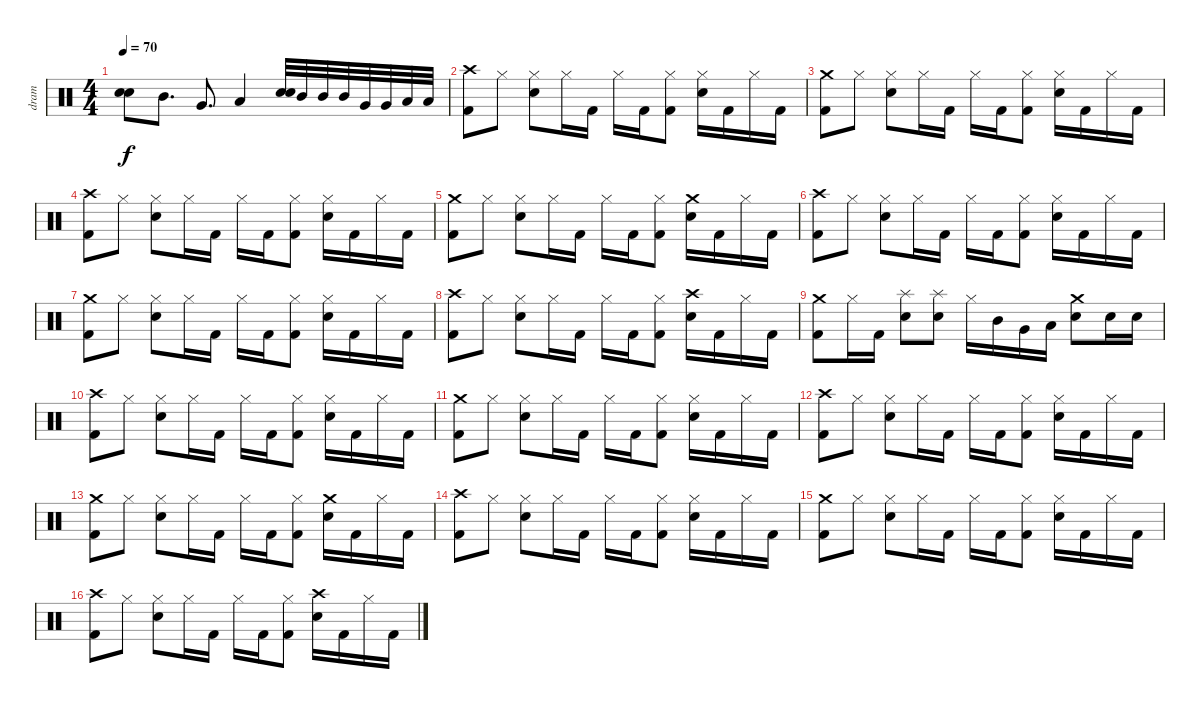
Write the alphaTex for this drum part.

\track ("dram" "dram") {instrument percussion}
\staff {score}
\articulation defaults
\ts (4 4)
\tempo 70
\clef neutral
\ks c
("Snare (hit) 2" "Electric Snare (hit)").8{dy f} "Mid Tom (hit)".8{d} "Very Low Tom (hit)".8{d} "Low Floor Tom (hit)".4 ("Snare (hit) 2" "Electric Snare (hit)").32 "Mid Tom (hit)".32 "Mid Tom (hit)".32 "Mid Tom (hit)".32 "Very Low Tom (hit)".32 "Very Low Tom (hit)".32 "Low Floor Tom (hit)".32 "Low Floor Tom (hit)".32 |
("Crash high (hit)" "Kick (hit) 2").8 "Hi-Hat (closed)".8 ("Electric Snare (hit)" "Hi-Hat (closed)").8 "Hi-Hat (closed)".16 "Kick (hit) 2".16 "Hi-Hat (closed)".16 "Kick (hit) 2".16 ("Kick (hit) 2" "Hi-Hat (closed)").8 ("Electric Snare (hit)" "Hi-Hat (closed)").16 "Kick (hit) 2".16 "Hi-Hat (closed)".16 "Kick (hit) 2".16 |
("Crash medium (hit)" "Kick (hit) 2").8 "Hi-Hat (closed)".8 ("Electric Snare (hit)" "Hi-Hat (closed)").8 "Hi-Hat (closed)".16 "Kick (hit) 2".16 "Hi-Hat (closed)".16 "Kick (hit) 2".16 ("Kick (hit) 2" "Hi-Hat (closed)").8 ("Electric Snare (hit)" "Hi-Hat (closed)").16 "Kick (hit) 2".16 "Hi-Hat (closed)".16 "Kick (hit) 2".16 |
("Crash high (hit)" "Kick (hit) 2").8 "Hi-Hat (closed)".8 ("Electric Snare (hit)" "Hi-Hat (closed)").8 "Hi-Hat (closed)".16 "Kick (hit) 2".16 "Hi-Hat (closed)".16 "Kick (hit) 2".16 ("Kick (hit) 2" "Hi-Hat (closed)").8 ("Electric Snare (hit)" "Hi-Hat (closed)").16 "Kick (hit) 2".16 "Hi-Hat (closed)".16 "Kick (hit) 2".16 |
("Crash medium (hit)" "Kick (hit) 2").8 "Hi-Hat (closed)".8 ("Electric Snare (hit)" "Hi-Hat (closed)").8 "Hi-Hat (closed)".16 "Kick (hit) 2".16 "Hi-Hat (closed)".16 "Kick (hit) 2".16 ("Kick (hit) 2" "Hi-Hat (closed)").8 ("Crash medium (hit)" "Electric Snare (hit)").16 "Kick (hit) 2".16 "Hi-Hat (closed)".16 "Kick (hit) 2".16 |
("Crash high (hit)" "Kick (hit) 2").8 "Hi-Hat (closed)".8 ("Electric Snare (hit)" "Hi-Hat (closed)").8 "Hi-Hat (closed)".16 "Kick (hit) 2".16 "Hi-Hat (closed)".16 "Kick (hit) 2".16 ("Kick (hit) 2" "Hi-Hat (closed)").8 ("Electric Snare (hit)" "Hi-Hat (closed)").16 "Kick (hit) 2".16 "Hi-Hat (closed)".16 "Kick (hit) 2".16 |
("Crash medium (hit)" "Kick (hit) 2").8 "Hi-Hat (closed)".8 ("Electric Snare (hit)" "Hi-Hat (closed)").8 "Hi-Hat (closed)".16 "Kick (hit) 2".16 "Hi-Hat (closed)".16 "Kick (hit) 2".16 ("Kick (hit) 2" "Hi-Hat (closed)").8 ("Electric Snare (hit)" "Hi-Hat (closed)").16 "Kick (hit) 2".16 "Hi-Hat (closed)".16 "Kick (hit) 2".16 |
("Crash high (hit)" "Kick (hit) 2").8 "Hi-Hat (closed)".8 ("Electric Snare (hit)" "Hi-Hat (closed)").8 "Hi-Hat (closed)".16 "Kick (hit) 2".16 "Hi-Hat (closed)".16 "Kick (hit) 2".16 ("Kick (hit) 2" "Hi-Hat (closed)").8 ("Crash high (hit)" "Electric Snare (hit)").16 "Kick (hit) 2".16 "Hi-Hat (closed)".16 "Kick (hit) 2".16 |
("Crash medium (hit)" "Kick (hit) 2").8 "Hi-Hat (closed)".16 "Kick (hit) 2".16 ("Splash (hit)" "Electric Snare (hit)").8 ("Splash (hit)" "Electric Snare (hit)").8 "Hi-Hat (closed)".16 "Mid Tom (hit)".16 "Very Low Tom (hit)".16 "Low Floor Tom (hit)".16 ("Crash medium (hit)" "Electric Snare (hit)").8 "Electric Snare (hit)".16 "Electric Snare (hit)".16 |
("Crash high (hit)" "Kick (hit) 2").8 "Hi-Hat (closed)".8 ("Electric Snare (hit)" "Hi-Hat (closed)").8 "Hi-Hat (closed)".16 "Kick (hit) 2".16 "Hi-Hat (closed)".16 "Kick (hit) 2".16 ("Kick (hit) 2" "Hi-Hat (closed)").8 ("Electric Snare (hit)" "Hi-Hat (closed)").16 "Kick (hit) 2".16 "Hi-Hat (closed)".16 "Kick (hit) 2".16 |
("Crash medium (hit)" "Kick (hit) 2").8 "Hi-Hat (closed)".8 ("Electric Snare (hit)" "Hi-Hat (closed)").8 "Hi-Hat (closed)".16 "Kick (hit) 2".16 "Hi-Hat (closed)".16 "Kick (hit) 2".16 ("Kick (hit) 2" "Hi-Hat (closed)").8 ("Electric Snare (hit)" "Hi-Hat (closed)").16 "Kick (hit) 2".16 "Hi-Hat (closed)".16 "Kick (hit) 2".16 |
("Crash high (hit)" "Kick (hit) 2").8 "Hi-Hat (closed)".8 ("Electric Snare (hit)" "Hi-Hat (closed)").8 "Hi-Hat (closed)".16 "Kick (hit) 2".16 "Hi-Hat (closed)".16 "Kick (hit) 2".16 ("Kick (hit) 2" "Hi-Hat (closed)").8 ("Electric Snare (hit)" "Hi-Hat (closed)").16 "Kick (hit) 2".16 "Hi-Hat (closed)".16 "Kick (hit) 2".16 |
("Crash medium (hit)" "Kick (hit) 2").8 "Hi-Hat (closed)".8 ("Electric Snare (hit)" "Hi-Hat (closed)").8 "Hi-Hat (closed)".16 "Kick (hit) 2".16 "Hi-Hat (closed)".16 "Kick (hit) 2".16 ("Kick (hit) 2" "Hi-Hat (closed)").8 ("Crash medium (hit)" "Electric Snare (hit)").16 "Kick (hit) 2".16 "Hi-Hat (closed)".16 "Kick (hit) 2".16 |
("Crash high (hit)" "Kick (hit) 2").8 "Hi-Hat (closed)".8 ("Electric Snare (hit)" "Hi-Hat (closed)").8 "Hi-Hat (closed)".16 "Kick (hit) 2".16 "Hi-Hat (closed)".16 "Kick (hit) 2".16 ("Kick (hit) 2" "Hi-Hat (closed)").8 ("Electric Snare (hit)" "Hi-Hat (closed)").16 "Kick (hit) 2".16 "Hi-Hat (closed)".16 "Kick (hit) 2".16 |
("Crash medium (hit)" "Kick (hit) 2").8 "Hi-Hat (closed)".8 ("Electric Snare (hit)" "Hi-Hat (closed)").8 "Hi-Hat (closed)".16 "Kick (hit) 2".16 "Hi-Hat (closed)".16 "Kick (hit) 2".16 ("Kick (hit) 2" "Hi-Hat (closed)").8 ("Electric Snare (hit)" "Hi-Hat (closed)").16 "Kick (hit) 2".16 "Hi-Hat (closed)".16 "Kick (hit) 2".16 |
("Crash high (hit)" "Kick (hit) 2").8 "Hi-Hat (closed)".8 ("Electric Snare (hit)" "Hi-Hat (closed)").8 "Hi-Hat (closed)".16 "Kick (hit) 2".16 "Hi-Hat (closed)".16 "Kick (hit) 2".16 ("Kick (hit) 2" "Hi-Hat (closed)").8 ("Crash high (hit)" "Electric Snare (hit)").16 "Kick (hit) 2".16 "Hi-Hat (closed)".16 "Kick (hit) 2".16
